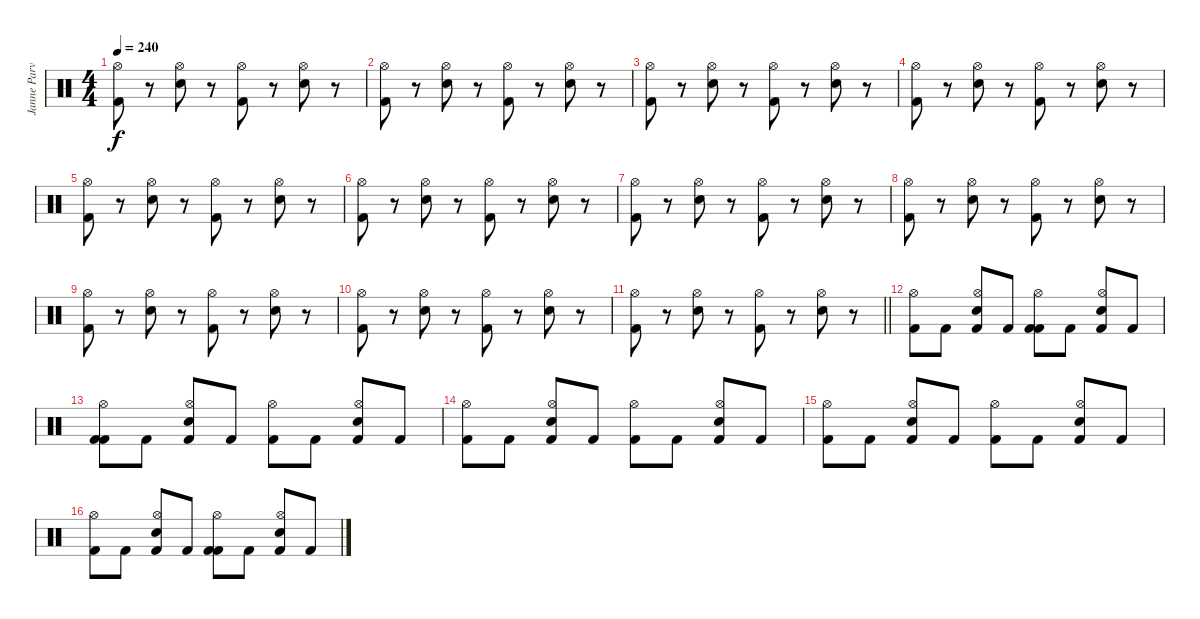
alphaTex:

\track ("Janne Parviainen" "Janne Parv") {instrument percussion}
\staff {score}
\articulation defaults
\ts (4 4)
\tempo 240
\clef neutral
\ks c
("Kick (hit) 2" "Hi-Hat (open)").8{dy f} r.8 ("Electric Snare (hit)" "Hi-Hat (open)").8 r.8 ("Kick (hit) 2" "Hi-Hat (open)").8 r.8 ("Electric Snare (hit)" "Hi-Hat (open)").8 r.8 |
("Kick (hit) 2" "Hi-Hat (open)").8 r.8 ("Electric Snare (hit)" "Hi-Hat (open)").8 r.8 ("Kick (hit) 2" "Hi-Hat (open)").8 r.8 ("Electric Snare (hit)" "Hi-Hat (open)").8 r.8 |
("Kick (hit) 2" "Hi-Hat (open)").8 r.8 ("Electric Snare (hit)" "Hi-Hat (open)").8 r.8 ("Kick (hit) 2" "Hi-Hat (open)").8 r.8 ("Electric Snare (hit)" "Hi-Hat (open)").8 r.8 |
("Kick (hit) 2" "Hi-Hat (open)").8 r.8 ("Electric Snare (hit)" "Hi-Hat (open)").8 r.8 ("Kick (hit) 2" "Hi-Hat (open)").8 r.8 ("Electric Snare (hit)" "Hi-Hat (open)").8 r.8 |
("Kick (hit) 2" "Hi-Hat (open)").8 r.8 ("Electric Snare (hit)" "Hi-Hat (open)").8 r.8 ("Kick (hit) 2" "Hi-Hat (open)").8 r.8 ("Electric Snare (hit)" "Hi-Hat (open)").8 r.8 |
("Kick (hit) 2" "Hi-Hat (open)").8 r.8 ("Electric Snare (hit)" "Hi-Hat (open)").8 r.8 ("Kick (hit) 2" "Hi-Hat (open)").8 r.8 ("Electric Snare (hit)" "Hi-Hat (open)").8 r.8 |
("Kick (hit) 2" "Hi-Hat (open)").8 r.8 ("Electric Snare (hit)" "Hi-Hat (open)").8 r.8 ("Kick (hit) 2" "Hi-Hat (open)").8 r.8 ("Electric Snare (hit)" "Hi-Hat (open)").8 r.8 |
("Kick (hit) 2" "Hi-Hat (open)").8 r.8 ("Electric Snare (hit)" "Hi-Hat (open)").8 r.8 ("Kick (hit) 2" "Hi-Hat (open)").8 r.8 ("Electric Snare (hit)" "Hi-Hat (open)").8 r.8 |
("Kick (hit) 2" "Hi-Hat (open)").8 r.8 ("Electric Snare (hit)" "Hi-Hat (open)").8 r.8 ("Kick (hit) 2" "Hi-Hat (open)").8 r.8 ("Electric Snare (hit)" "Hi-Hat (open)").8 r.8 |
("Kick (hit) 2" "Hi-Hat (open)").8 r.8 ("Electric Snare (hit)" "Hi-Hat (open)").8 r.8 ("Kick (hit) 2" "Hi-Hat (open)").8 r.8 ("Electric Snare (hit)" "Hi-Hat (open)").8 r.8 |
\barLineRight lightlight
("Kick (hit) 2" "Hi-Hat (open)").8 r.8 ("Electric Snare (hit)" "Hi-Hat (open)").8 r.8 ("Kick (hit) 2" "Hi-Hat (open)").8 r.8 ("Electric Snare (hit)" "Hi-Hat (open)").8 r.8 |
("Kick (hit) 2" "Hi-Hat (open)").8 "Kick (hit) 2".8 ("Electric Snare (hit)" "Hi-Hat (open)" "Kick (hit) 2").8 "Kick (hit) 2".8 ("Kick (hit) 2" "Hi-Hat (open)" "Kick (hit) 2").8 "Kick (hit) 2".8 ("Electric Snare (hit)" "Hi-Hat (open)" "Kick (hit) 2").8 "Kick (hit) 2".8 |
("Kick (hit) 2" "Hi-Hat (open)" "Kick (hit) 2").8 "Kick (hit) 2".8 ("Electric Snare (hit)" "Hi-Hat (open)" "Kick (hit) 2").8 "Kick (hit) 2".8 ("Kick (hit) 2" "Hi-Hat (open)").8 "Kick (hit) 2".8 ("Electric Snare (hit)" "Hi-Hat (open)" "Kick (hit) 2").8 "Kick (hit) 2".8 |
("Kick (hit) 2" "Hi-Hat (open)").8 "Kick (hit) 2".8 ("Electric Snare (hit)" "Hi-Hat (open)" "Kick (hit) 2").8 "Kick (hit) 2".8 ("Kick (hit) 2" "Hi-Hat (open)").8 "Kick (hit) 2".8 ("Electric Snare (hit)" "Hi-Hat (open)" "Kick (hit) 2").8 "Kick (hit) 2".8 |
("Kick (hit) 2" "Hi-Hat (open)").8 "Kick (hit) 2".8 ("Electric Snare (hit)" "Hi-Hat (open)" "Kick (hit) 2").8 "Kick (hit) 2".8 ("Kick (hit) 2" "Hi-Hat (open)").8 "Kick (hit) 2".8 ("Electric Snare (hit)" "Hi-Hat (open)" "Kick (hit) 2").8 "Kick (hit) 2".8 |
("Kick (hit) 2" "Hi-Hat (open)").8 "Kick (hit) 2".8 ("Electric Snare (hit)" "Hi-Hat (open)" "Kick (hit) 2").8 "Kick (hit) 2".8 ("Kick (hit) 2" "Hi-Hat (open)" "Kick (hit) 2").8 "Kick (hit) 2".8 ("Electric Snare (hit)" "Hi-Hat (open)" "Kick (hit) 2").8 "Kick (hit) 2".8
